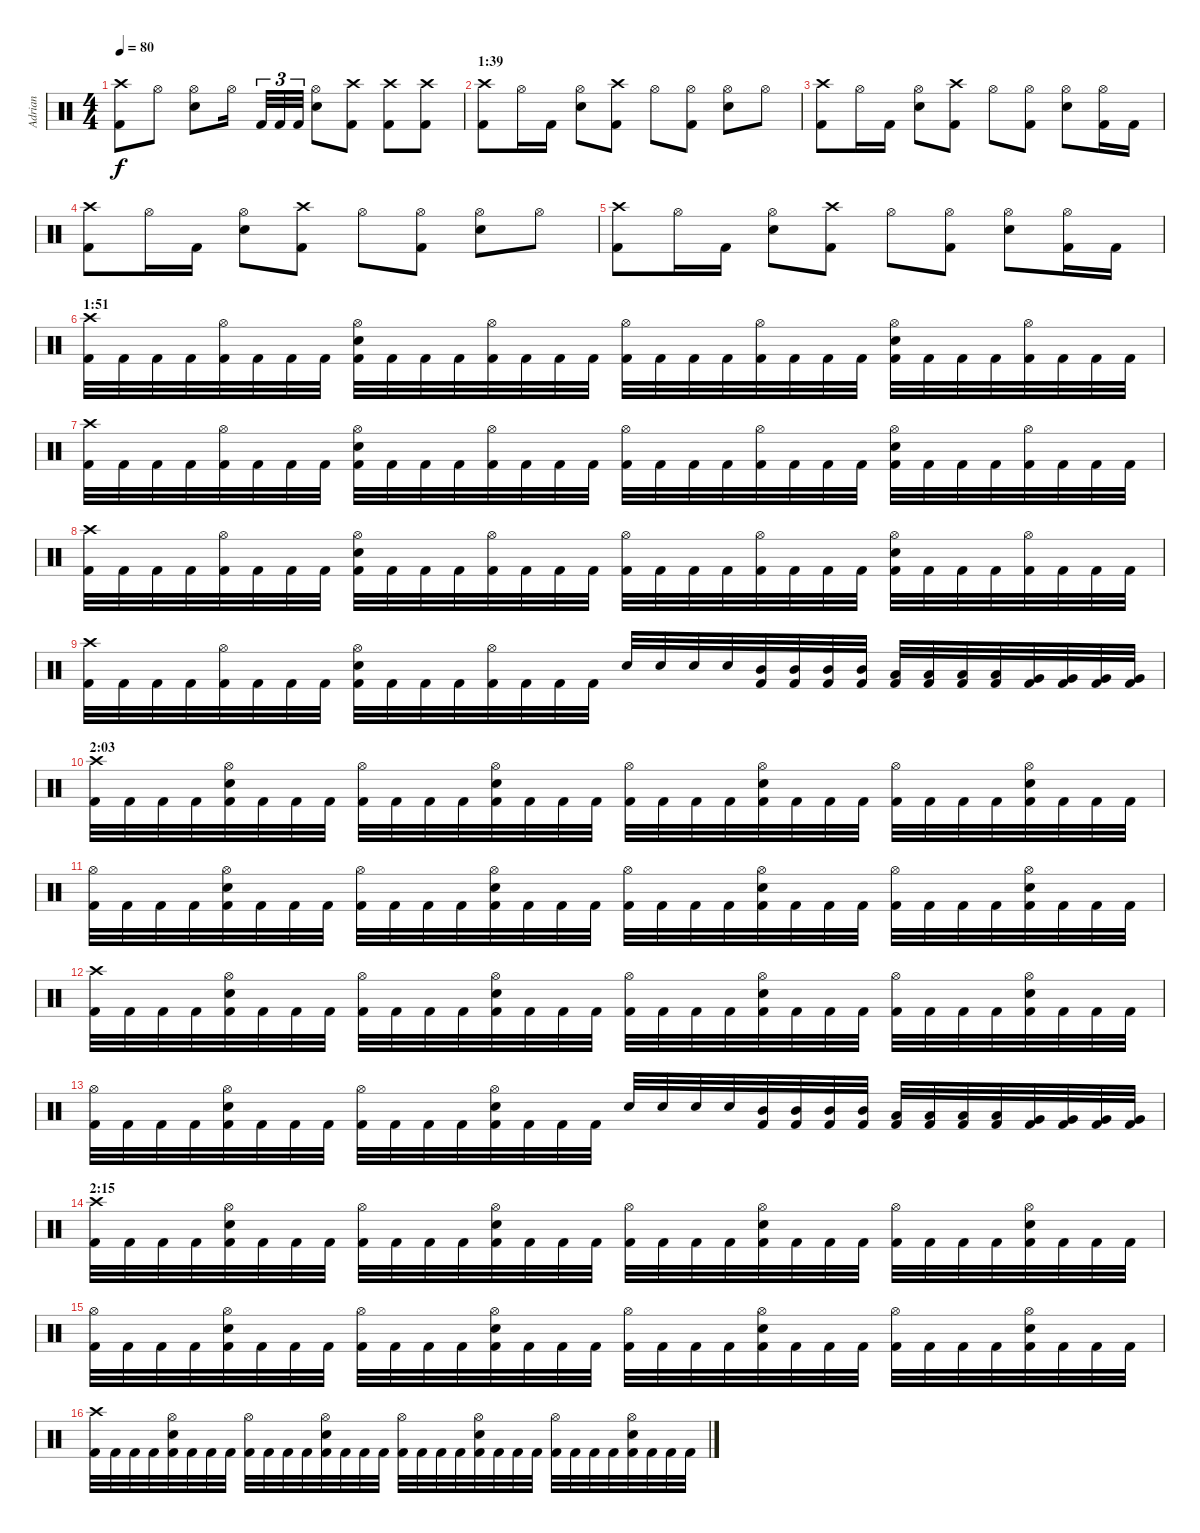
\track ("Adrian" "Adrian") {instrument percussion}
\staff {score}
\articulation defaults
\ts (4 4)
\tempo 80
\clef neutral
\ks c
("Kick (hit) 2" "Crash high (hit)").8{dy f} "Hi-Hat (open)".8 ("Snare (hit) 2" "Hi-Hat (open)").8 "Hi-Hat (open)".16 "Kick (hit) 2".32{tu (3 2)} "Kick (hit) 2".32{tu (3 2)} "Kick (hit) 2".32{tu (3 2)} ("Snare (hit) 2" "Hi-Hat (open)").8 ("Kick (hit) 2" "Crash high (hit)").8 ("Kick (hit) 2" "Crash high (hit)").8 ("Kick (hit) 2" "Crash high (hit)").8 |
\section ("" "1:39")
("Kick (hit) 2" "Crash high (hit)").8 "Hi-Hat (open)".16 "Kick (hit) 2".16 ("Snare (hit) 2" "Hi-Hat (open)").8 ("Kick (hit) 2" "Crash high (hit)").8 "Hi-Hat (open)".8 ("Kick (hit) 2" "Hi-Hat (open)").8 ("Snare (hit) 2" "Hi-Hat (open)").8 "Hi-Hat (open)".8 |
("Kick (hit) 2" "Crash high (hit)").8 "Hi-Hat (open)".16 "Kick (hit) 2".16 ("Snare (hit) 2" "Hi-Hat (open)").8 ("Kick (hit) 2" "Crash high (hit)").8 "Hi-Hat (open)".8 ("Kick (hit) 2" "Hi-Hat (open)").8 ("Snare (hit) 2" "Hi-Hat (open)").8 ("Kick (hit) 2" "Hi-Hat (open)").16 "Kick (hit) 2".16 |
("Kick (hit) 2" "Crash high (hit)").8 "Hi-Hat (open)".16 "Kick (hit) 2".16 ("Snare (hit) 2" "Hi-Hat (open)").8 ("Kick (hit) 2" "Crash high (hit)").8 "Hi-Hat (open)".8 ("Kick (hit) 2" "Hi-Hat (open)").8 ("Snare (hit) 2" "Hi-Hat (open)").8 "Hi-Hat (open)".8 |
("Kick (hit) 2" "Crash high (hit)").8 "Hi-Hat (open)".16 "Kick (hit) 2".16 ("Snare (hit) 2" "Hi-Hat (open)").8 ("Kick (hit) 2" "Crash high (hit)").8 "Hi-Hat (open)".8 ("Kick (hit) 2" "Hi-Hat (open)").8 ("Snare (hit) 2" "Hi-Hat (open)").8 ("Kick (hit) 2" "Hi-Hat (open)").16 "Kick (hit) 2".16 |
\section ("" "1:51")
("Kick (hit) 2" "Crash high (hit)").32 "Kick (hit) 2".32 "Kick (hit) 2".32 "Kick (hit) 2".32 ("Kick (hit) 2" "Hi-Hat (open)").32 "Kick (hit) 2".32 "Kick (hit) 2".32 "Kick (hit) 2".32 ("Kick (hit) 2" "Snare (hit) 2" "Hi-Hat (open)").32 "Kick (hit) 2".32 "Kick (hit) 2".32 "Kick (hit) 2".32 ("Kick (hit) 2" "Hi-Hat (open)").32 "Kick (hit) 2".32 "Kick (hit) 2".32 "Kick (hit) 2".32 ("Kick (hit) 2" "Hi-Hat (open)").32 "Kick (hit) 2".32 "Kick (hit) 2".32 "Kick (hit) 2".32 ("Kick (hit) 2" "Hi-Hat (open)").32 "Kick (hit) 2".32 "Kick (hit) 2".32 "Kick (hit) 2".32 ("Kick (hit) 2" "Snare (hit) 2" "Hi-Hat (open)").32 "Kick (hit) 2".32 "Kick (hit) 2".32 "Kick (hit) 2".32 ("Kick (hit) 2" "Hi-Hat (open)").32 "Kick (hit) 2".32 "Kick (hit) 2".32 "Kick (hit) 2".32 |
("Kick (hit) 2" "Crash high (hit)").32 "Kick (hit) 2".32 "Kick (hit) 2".32 "Kick (hit) 2".32 ("Kick (hit) 2" "Hi-Hat (open)").32 "Kick (hit) 2".32 "Kick (hit) 2".32 "Kick (hit) 2".32 ("Kick (hit) 2" "Snare (hit) 2" "Hi-Hat (open)").32 "Kick (hit) 2".32 "Kick (hit) 2".32 "Kick (hit) 2".32 ("Kick (hit) 2" "Hi-Hat (open)").32 "Kick (hit) 2".32 "Kick (hit) 2".32 "Kick (hit) 2".32 ("Kick (hit) 2" "Hi-Hat (open)").32 "Kick (hit) 2".32 "Kick (hit) 2".32 "Kick (hit) 2".32 ("Kick (hit) 2" "Hi-Hat (open)").32 "Kick (hit) 2".32 "Kick (hit) 2".32 "Kick (hit) 2".32 ("Kick (hit) 2" "Snare (hit) 2" "Hi-Hat (open)").32 "Kick (hit) 2".32 "Kick (hit) 2".32 "Kick (hit) 2".32 ("Kick (hit) 2" "Hi-Hat (open)").32 "Kick (hit) 2".32 "Kick (hit) 2".32 "Kick (hit) 2".32 |
("Kick (hit) 2" "Crash high (hit)").32 "Kick (hit) 2".32 "Kick (hit) 2".32 "Kick (hit) 2".32 ("Kick (hit) 2" "Hi-Hat (open)").32 "Kick (hit) 2".32 "Kick (hit) 2".32 "Kick (hit) 2".32 ("Kick (hit) 2" "Snare (hit) 2" "Hi-Hat (open)").32 "Kick (hit) 2".32 "Kick (hit) 2".32 "Kick (hit) 2".32 ("Kick (hit) 2" "Hi-Hat (open)").32 "Kick (hit) 2".32 "Kick (hit) 2".32 "Kick (hit) 2".32 ("Kick (hit) 2" "Hi-Hat (open)").32 "Kick (hit) 2".32 "Kick (hit) 2".32 "Kick (hit) 2".32 ("Kick (hit) 2" "Hi-Hat (open)").32 "Kick (hit) 2".32 "Kick (hit) 2".32 "Kick (hit) 2".32 ("Kick (hit) 2" "Snare (hit) 2" "Hi-Hat (open)").32 "Kick (hit) 2".32 "Kick (hit) 2".32 "Kick (hit) 2".32 ("Kick (hit) 2" "Hi-Hat (open)").32 "Kick (hit) 2".32 "Kick (hit) 2".32 "Kick (hit) 2".32 |
("Kick (hit) 2" "Crash high (hit)").32 "Kick (hit) 2".32 "Kick (hit) 2".32 "Kick (hit) 2".32 ("Kick (hit) 2" "Hi-Hat (open)").32 "Kick (hit) 2".32 "Kick (hit) 2".32 "Kick (hit) 2".32 ("Kick (hit) 2" "Snare (hit) 2" "Hi-Hat (open)").32 "Kick (hit) 2".32 "Kick (hit) 2".32 "Kick (hit) 2".32 ("Kick (hit) 2" "Hi-Hat (open)").32 "Kick (hit) 2".32 "Kick (hit) 2".32 "Kick (hit) 2".32 "Snare (hit) 2".32 "Snare (hit) 2".32 "Snare (hit) 2".32 "Snare (hit) 2".32 ("Kick (hit) 2" "Mid Tom (hit)").32 ("Kick (hit) 2" "Mid Tom (hit)").32 ("Kick (hit) 2" "Mid Tom (hit)").32 ("Kick (hit) 2" "Mid Tom (hit)").32 ("Kick (hit) 2" "Low Tom (hit)").32 ("Kick (hit) 2" "Low Tom (hit)").32 ("Kick (hit) 2" "Low Tom (hit)").32 ("Kick (hit) 2" "Low Tom (hit)").32 ("Kick (hit) 2" "Very Low Tom (hit)").32 ("Kick (hit) 2" "Very Low Tom (hit)").32 ("Kick (hit) 2" "Very Low Tom (hit)").32 ("Kick (hit) 2" "Very Low Tom (hit)").32 |
\section ("" "2:03")
("Kick (hit) 2" "Crash high (hit)").32 "Kick (hit) 2".32 "Kick (hit) 2".32 "Kick (hit) 2".32 ("Kick (hit) 2" "Snare (hit) 2" "Hi-Hat (open)").32 "Kick (hit) 2".32 "Kick (hit) 2".32 "Kick (hit) 2".32 ("Kick (hit) 2" "Hi-Hat (open)").32 "Kick (hit) 2".32 "Kick (hit) 2".32 "Kick (hit) 2".32 ("Kick (hit) 2" "Snare (hit) 2" "Hi-Hat (open)").32 "Kick (hit) 2".32 "Kick (hit) 2".32 "Kick (hit) 2".32 ("Kick (hit) 2" "Hi-Hat (open)").32 "Kick (hit) 2".32 "Kick (hit) 2".32 "Kick (hit) 2".32 ("Kick (hit) 2" "Snare (hit) 2" "Hi-Hat (open)").32 "Kick (hit) 2".32 "Kick (hit) 2".32 "Kick (hit) 2".32 ("Kick (hit) 2" "Hi-Hat (open)").32 "Kick (hit) 2".32 "Kick (hit) 2".32 "Kick (hit) 2".32 ("Kick (hit) 2" "Snare (hit) 2" "Hi-Hat (open)").32 "Kick (hit) 2".32 "Kick (hit) 2".32 "Kick (hit) 2".32 |
("Kick (hit) 2" "Hi-Hat (open)").32 "Kick (hit) 2".32 "Kick (hit) 2".32 "Kick (hit) 2".32 ("Kick (hit) 2" "Snare (hit) 2" "Hi-Hat (open)").32 "Kick (hit) 2".32 "Kick (hit) 2".32 "Kick (hit) 2".32 ("Kick (hit) 2" "Hi-Hat (open)").32 "Kick (hit) 2".32 "Kick (hit) 2".32 "Kick (hit) 2".32 ("Kick (hit) 2" "Snare (hit) 2" "Hi-Hat (open)").32 "Kick (hit) 2".32 "Kick (hit) 2".32 "Kick (hit) 2".32 ("Kick (hit) 2" "Hi-Hat (open)").32 "Kick (hit) 2".32 "Kick (hit) 2".32 "Kick (hit) 2".32 ("Kick (hit) 2" "Snare (hit) 2" "Hi-Hat (open)").32 "Kick (hit) 2".32 "Kick (hit) 2".32 "Kick (hit) 2".32 ("Kick (hit) 2" "Hi-Hat (open)").32 "Kick (hit) 2".32 "Kick (hit) 2".32 "Kick (hit) 2".32 ("Kick (hit) 2" "Snare (hit) 2" "Hi-Hat (open)").32 "Kick (hit) 2".32 "Kick (hit) 2".32 "Kick (hit) 2".32 |
("Kick (hit) 2" "Crash high (hit)").32 "Kick (hit) 2".32 "Kick (hit) 2".32 "Kick (hit) 2".32 ("Kick (hit) 2" "Snare (hit) 2" "Hi-Hat (open)").32 "Kick (hit) 2".32 "Kick (hit) 2".32 "Kick (hit) 2".32 ("Kick (hit) 2" "Hi-Hat (open)").32 "Kick (hit) 2".32 "Kick (hit) 2".32 "Kick (hit) 2".32 ("Kick (hit) 2" "Snare (hit) 2" "Hi-Hat (open)").32 "Kick (hit) 2".32 "Kick (hit) 2".32 "Kick (hit) 2".32 ("Kick (hit) 2" "Hi-Hat (open)").32 "Kick (hit) 2".32 "Kick (hit) 2".32 "Kick (hit) 2".32 ("Kick (hit) 2" "Snare (hit) 2" "Hi-Hat (open)").32 "Kick (hit) 2".32 "Kick (hit) 2".32 "Kick (hit) 2".32 ("Kick (hit) 2" "Hi-Hat (open)").32 "Kick (hit) 2".32 "Kick (hit) 2".32 "Kick (hit) 2".32 ("Kick (hit) 2" "Snare (hit) 2" "Hi-Hat (open)").32 "Kick (hit) 2".32 "Kick (hit) 2".32 "Kick (hit) 2".32 |
("Kick (hit) 2" "Hi-Hat (open)").32 "Kick (hit) 2".32 "Kick (hit) 2".32 "Kick (hit) 2".32 ("Kick (hit) 2" "Snare (hit) 2" "Hi-Hat (open)").32 "Kick (hit) 2".32 "Kick (hit) 2".32 "Kick (hit) 2".32 ("Kick (hit) 2" "Hi-Hat (open)").32 "Kick (hit) 2".32 "Kick (hit) 2".32 "Kick (hit) 2".32 ("Kick (hit) 2" "Snare (hit) 2" "Hi-Hat (open)").32 "Kick (hit) 2".32 "Kick (hit) 2".32 "Kick (hit) 2".32 "Snare (hit) 2".32 "Snare (hit) 2".32 "Snare (hit) 2".32 "Snare (hit) 2".32 ("Kick (hit) 2" "Mid Tom (hit)").32 ("Kick (hit) 2" "Mid Tom (hit)").32 ("Kick (hit) 2" "Mid Tom (hit)").32 ("Kick (hit) 2" "Mid Tom (hit)").32 ("Kick (hit) 2" "Low Tom (hit)").32 ("Kick (hit) 2" "Low Tom (hit)").32 ("Kick (hit) 2" "Low Tom (hit)").32 ("Kick (hit) 2" "Low Tom (hit)").32 ("Kick (hit) 2" "Very Low Tom (hit)").32 ("Kick (hit) 2" "Very Low Tom (hit)").32 ("Kick (hit) 2" "Very Low Tom (hit)").32 ("Kick (hit) 2" "Very Low Tom (hit)").32 |
\section ("" "2:15")
("Kick (hit) 2" "Crash high (hit)").32 "Kick (hit) 2".32 "Kick (hit) 2".32 "Kick (hit) 2".32 ("Kick (hit) 2" "Snare (hit) 2" "Hi-Hat (open)").32 "Kick (hit) 2".32 "Kick (hit) 2".32 "Kick (hit) 2".32 ("Kick (hit) 2" "Hi-Hat (open)").32 "Kick (hit) 2".32 "Kick (hit) 2".32 "Kick (hit) 2".32 ("Kick (hit) 2" "Snare (hit) 2" "Hi-Hat (open)").32 "Kick (hit) 2".32 "Kick (hit) 2".32 "Kick (hit) 2".32 ("Kick (hit) 2" "Hi-Hat (open)").32 "Kick (hit) 2".32 "Kick (hit) 2".32 "Kick (hit) 2".32 ("Kick (hit) 2" "Snare (hit) 2" "Hi-Hat (open)").32 "Kick (hit) 2".32 "Kick (hit) 2".32 "Kick (hit) 2".32 ("Kick (hit) 2" "Hi-Hat (open)").32 "Kick (hit) 2".32 "Kick (hit) 2".32 "Kick (hit) 2".32 ("Kick (hit) 2" "Snare (hit) 2" "Hi-Hat (open)").32 "Kick (hit) 2".32 "Kick (hit) 2".32 "Kick (hit) 2".32 |
("Kick (hit) 2" "Hi-Hat (open)").32 "Kick (hit) 2".32 "Kick (hit) 2".32 "Kick (hit) 2".32 ("Kick (hit) 2" "Snare (hit) 2" "Hi-Hat (open)").32 "Kick (hit) 2".32 "Kick (hit) 2".32 "Kick (hit) 2".32 ("Kick (hit) 2" "Hi-Hat (open)").32 "Kick (hit) 2".32 "Kick (hit) 2".32 "Kick (hit) 2".32 ("Kick (hit) 2" "Snare (hit) 2" "Hi-Hat (open)").32 "Kick (hit) 2".32 "Kick (hit) 2".32 "Kick (hit) 2".32 ("Kick (hit) 2" "Hi-Hat (open)").32 "Kick (hit) 2".32 "Kick (hit) 2".32 "Kick (hit) 2".32 ("Kick (hit) 2" "Snare (hit) 2" "Hi-Hat (open)").32 "Kick (hit) 2".32 "Kick (hit) 2".32 "Kick (hit) 2".32 ("Kick (hit) 2" "Hi-Hat (open)").32 "Kick (hit) 2".32 "Kick (hit) 2".32 "Kick (hit) 2".32 ("Kick (hit) 2" "Snare (hit) 2" "Hi-Hat (open)").32 "Kick (hit) 2".32 "Kick (hit) 2".32 "Kick (hit) 2".32 |
("Kick (hit) 2" "Crash high (hit)").32 "Kick (hit) 2".32 "Kick (hit) 2".32 "Kick (hit) 2".32 ("Kick (hit) 2" "Snare (hit) 2" "Hi-Hat (open)").32 "Kick (hit) 2".32 "Kick (hit) 2".32 "Kick (hit) 2".32 ("Kick (hit) 2" "Hi-Hat (open)").32 "Kick (hit) 2".32 "Kick (hit) 2".32 "Kick (hit) 2".32 ("Kick (hit) 2" "Snare (hit) 2" "Hi-Hat (open)").32 "Kick (hit) 2".32 "Kick (hit) 2".32 "Kick (hit) 2".32 ("Kick (hit) 2" "Hi-Hat (open)").32 "Kick (hit) 2".32 "Kick (hit) 2".32 "Kick (hit) 2".32 ("Kick (hit) 2" "Snare (hit) 2" "Hi-Hat (open)").32 "Kick (hit) 2".32 "Kick (hit) 2".32 "Kick (hit) 2".32 ("Kick (hit) 2" "Hi-Hat (open)").32 "Kick (hit) 2".32 "Kick (hit) 2".32 "Kick (hit) 2".32 ("Kick (hit) 2" "Snare (hit) 2" "Hi-Hat (open)").32 "Kick (hit) 2".32 "Kick (hit) 2".32 "Kick (hit) 2".32
